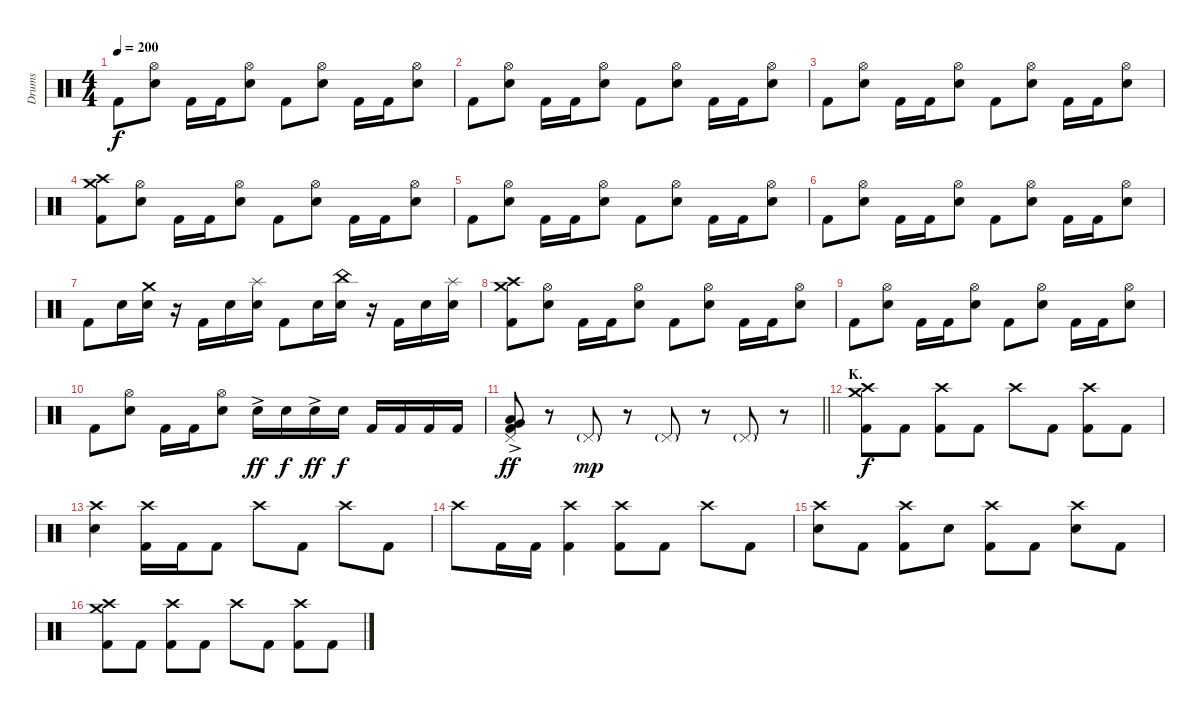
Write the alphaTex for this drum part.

\track ("Drums" "Drums") {instrument percussion}
\staff {score}
\articulation defaults
\ts (4 4)
\tempo 200
\clef neutral
\ks c "Kick (hit) 2".8{dy f}
("Hi-Hat (open)" "Electric Snare (hit)").8 "Kick (hit) 2".16 "Kick (hit) 2".16 ("Hi-Hat (open)" "Electric Snare (hit)").8 "Kick (hit) 2".8 ("Hi-Hat (open)" "Electric Snare (hit)").8 "Kick (hit) 2".16 "Kick (hit) 2".16 ("Hi-Hat (open)" "Electric Snare (hit)").8 |
"Kick (hit) 2".8 ("Hi-Hat (open)" "Electric Snare (hit)").8 "Kick (hit) 2".16 "Kick (hit) 2".16 ("Hi-Hat (open)" "Electric Snare (hit)").8 "Kick (hit) 2".8 ("Hi-Hat (open)" "Electric Snare (hit)").8 "Kick (hit) 2".16 "Kick (hit) 2".16 ("Hi-Hat (open)" "Electric Snare (hit)").8 |
"Kick (hit) 2".8 ("Hi-Hat (open)" "Electric Snare (hit)").8 "Kick (hit) 2".16 "Kick (hit) 2".16 ("Hi-Hat (open)" "Electric Snare (hit)").8 "Kick (hit) 2".8 ("Hi-Hat (open)" "Electric Snare (hit)").8 "Kick (hit) 2".16 "Kick (hit) 2".16 ("Hi-Hat (open)" "Electric Snare (hit)").8 |
("Crash medium (hit)" "Crash high (hit)" "Kick (hit) 2").8 ("Hi-Hat (open)" "Electric Snare (hit)").8 "Kick (hit) 2".16 "Kick (hit) 2".16 ("Hi-Hat (open)" "Electric Snare (hit)").8 "Kick (hit) 2".8 ("Hi-Hat (open)" "Electric Snare (hit)").8 "Kick (hit) 2".16 "Kick (hit) 2".16 ("Hi-Hat (open)" "Electric Snare (hit)").8 |
"Kick (hit) 2".8 ("Hi-Hat (open)" "Electric Snare (hit)").8 "Kick (hit) 2".16 "Kick (hit) 2".16 ("Hi-Hat (open)" "Electric Snare (hit)").8 "Kick (hit) 2".8 ("Hi-Hat (open)" "Electric Snare (hit)").8 "Kick (hit) 2".16 "Kick (hit) 2".16 ("Hi-Hat (open)" "Electric Snare (hit)").8 |
"Kick (hit) 2".8 ("Hi-Hat (open)" "Electric Snare (hit)").8 "Kick (hit) 2".16 "Kick (hit) 2".16 ("Hi-Hat (open)" "Electric Snare (hit)").8 "Kick (hit) 2".8 ("Hi-Hat (open)" "Electric Snare (hit)").8 "Kick (hit) 2".16 "Kick (hit) 2".16 ("Hi-Hat (open)" "Electric Snare (hit)").8 |
"Kick (hit) 2".8 "Electric Snare (hit)".16 ("Crash medium (hit)" "Electric Snare (hit)").16 r.16 "Kick (hit) 2".16 "Electric Snare (hit)".16 ("Splash (hit)" "Electric Snare (hit)").16 "Kick (hit) 2".8 "Electric Snare (hit)".16 ("China (hit)" "Electric Snare (hit)").16 r.16 "Kick (hit) 2".16 "Electric Snare (hit)".16 ("Splash (hit)" "Electric Snare (hit)").16 |
("Crash medium (hit)" "Crash high (hit)" "Kick (hit) 2").8 ("Hi-Hat (open)" "Electric Snare (hit)").8 "Kick (hit) 2".16 "Kick (hit) 2".16 ("Hi-Hat (open)" "Electric Snare (hit)").8 "Kick (hit) 2".8 ("Hi-Hat (open)" "Electric Snare (hit)").8 "Kick (hit) 2".16 "Kick (hit) 2".16 ("Hi-Hat (open)" "Electric Snare (hit)").8 |
"Kick (hit) 2".8 ("Hi-Hat (open)" "Electric Snare (hit)").8 "Kick (hit) 2".16 "Kick (hit) 2".16 ("Hi-Hat (open)" "Electric Snare (hit)").8 "Kick (hit) 2".8 ("Hi-Hat (open)" "Electric Snare (hit)").8 "Kick (hit) 2".16 "Kick (hit) 2".16 ("Hi-Hat (open)" "Electric Snare (hit)").8 |
"Kick (hit) 2".8 ("Hi-Hat (open)" "Electric Snare (hit)").8 "Kick (hit) 2".16 "Kick (hit) 2".16 ("Hi-Hat (open)" "Electric Snare (hit)").8 "Electric Snare (hit)"{ac}.16{dy ff} "Electric Snare (hit)".16{dy f} "Electric Snare (hit)"{ac}.16{dy ff} "Electric Snare (hit)".16{dy f} "Kick (hit) 2".16 "Kick (hit) 2".16 "Kick (hit) 2".16 "Kick (hit) 2".16 |
\barLineRight lightlight
("Pedal Hi-Hat (hit)" "Very Low Tom (hit)" "Low Floor Tom (hit)"{ac} "Kick (hit) 2").8{dy ff} r.8 "Pedal Hi-Hat (hit)"{g}.8{dy mp} r.8 "Pedal Hi-Hat (hit)"{g}.8 r.8 "Pedal Hi-Hat (hit)"{g}.8 r.8 |
\section ("" "K.")
("Crash medium (hit)" "Crash high (hit)" "Kick (hit) 2").8{dy f} "Kick (hit) 2".8 ("Crash high (hit)" "Kick (hit) 2").8 "Kick (hit) 2".8 "Crash high (hit)".8 "Kick (hit) 2".8 ("Crash high (hit)" "Kick (hit) 2").8 "Kick (hit) 2".8 |
("Crash high (hit)" "Electric Snare (hit)").4 ("Crash high (hit)" "Kick (hit) 2").16 "Kick (hit) 2".16 "Kick (hit) 2".8 "Crash high (hit)".8 "Kick (hit) 2".8 "Crash high (hit)".8 "Kick (hit) 2".8 |
"Crash high (hit)".8 "Kick (hit) 2".16 "Kick (hit) 2".16 ("Crash high (hit)" "Kick (hit) 2").4 ("Crash high (hit)" "Kick (hit) 2").8 "Kick (hit) 2".8 "Crash high (hit)".8 "Kick (hit) 2".8 |
("Crash high (hit)" "Electric Snare (hit)").8 "Kick (hit) 2".8 ("Crash high (hit)" "Kick (hit) 2").8 "Electric Snare (hit)".8 ("Crash high (hit)" "Kick (hit) 2").8 "Kick (hit) 2".8 ("Crash high (hit)" "Electric Snare (hit)").8 "Kick (hit) 2".8 |
("Crash medium (hit)" "Crash high (hit)" "Kick (hit) 2").8 "Kick (hit) 2".8 ("Crash high (hit)" "Kick (hit) 2").8 "Kick (hit) 2".8 "Crash high (hit)".8 "Kick (hit) 2".8 ("Crash high (hit)" "Kick (hit) 2").8 "Kick (hit) 2".8
